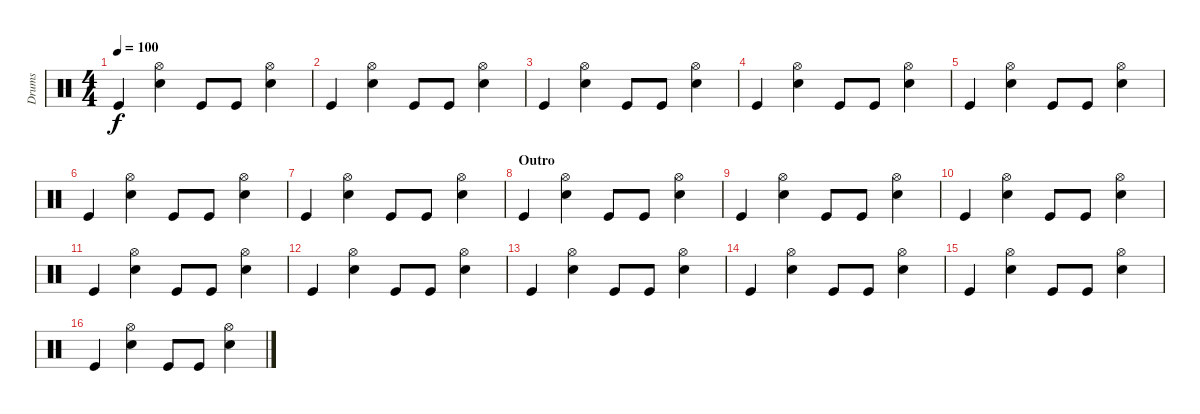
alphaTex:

\track ("Drums" "Drums") {instrument percussion}
\staff {score}
\articulation defaults
\ts (4 4)
\tempo 100
\clef neutral
\ks c "Kick (hit)".4{dy f}
("Hi-Hat (open)" "Electric Snare (hit)").4 "Kick (hit)".8 "Kick (hit)".8 ("Hi-Hat (open)" "Electric Snare (hit)").4 |
"Kick (hit)".4 ("Hi-Hat (open)" "Electric Snare (hit)").4 "Kick (hit)".8 "Kick (hit)".8 ("Hi-Hat (open)" "Electric Snare (hit)").4 |
"Kick (hit)".4 ("Hi-Hat (open)" "Electric Snare (hit)").4 "Kick (hit)".8 "Kick (hit)".8 ("Hi-Hat (open)" "Electric Snare (hit)").4 |
"Kick (hit)".4 ("Hi-Hat (open)" "Electric Snare (hit)").4 "Kick (hit)".8 "Kick (hit)".8 ("Hi-Hat (open)" "Electric Snare (hit)").4 |
"Kick (hit)".4 ("Hi-Hat (open)" "Electric Snare (hit)").4 "Kick (hit)".8 "Kick (hit)".8 ("Hi-Hat (open)" "Electric Snare (hit)").4 |
"Kick (hit)".4 ("Hi-Hat (open)" "Electric Snare (hit)").4 "Kick (hit)".8 "Kick (hit)".8 ("Hi-Hat (open)" "Electric Snare (hit)").4 |
"Kick (hit)".4 ("Hi-Hat (open)" "Electric Snare (hit)").4 "Kick (hit)".8 "Kick (hit)".8 ("Hi-Hat (open)" "Electric Snare (hit)").4 |
\section ("" "Outro")
"Kick (hit)".4 ("Hi-Hat (open)" "Electric Snare (hit)").4 "Kick (hit)".8 "Kick (hit)".8 ("Hi-Hat (open)" "Electric Snare (hit)").4 |
"Kick (hit)".4 ("Hi-Hat (open)" "Electric Snare (hit)").4 "Kick (hit)".8 "Kick (hit)".8 ("Hi-Hat (open)" "Electric Snare (hit)").4 |
"Kick (hit)".4 ("Hi-Hat (open)" "Electric Snare (hit)").4 "Kick (hit)".8 "Kick (hit)".8 ("Hi-Hat (open)" "Electric Snare (hit)").4 |
"Kick (hit)".4 ("Hi-Hat (open)" "Electric Snare (hit)").4 "Kick (hit)".8 "Kick (hit)".8 ("Hi-Hat (open)" "Electric Snare (hit)").4 |
"Kick (hit)".4 ("Hi-Hat (open)" "Electric Snare (hit)").4 "Kick (hit)".8 "Kick (hit)".8 ("Hi-Hat (open)" "Electric Snare (hit)").4 |
"Kick (hit)".4 ("Hi-Hat (open)" "Electric Snare (hit)").4 "Kick (hit)".8 "Kick (hit)".8 ("Hi-Hat (open)" "Electric Snare (hit)").4 |
"Kick (hit)".4 ("Hi-Hat (open)" "Electric Snare (hit)").4 "Kick (hit)".8 "Kick (hit)".8 ("Hi-Hat (open)" "Electric Snare (hit)").4 |
"Kick (hit)".4 ("Hi-Hat (open)" "Electric Snare (hit)").4 "Kick (hit)".8 "Kick (hit)".8 ("Hi-Hat (open)" "Electric Snare (hit)").4 |
"Kick (hit)".4 ("Hi-Hat (open)" "Electric Snare (hit)").4 "Kick (hit)".8 "Kick (hit)".8 ("Hi-Hat (open)" "Electric Snare (hit)").4
